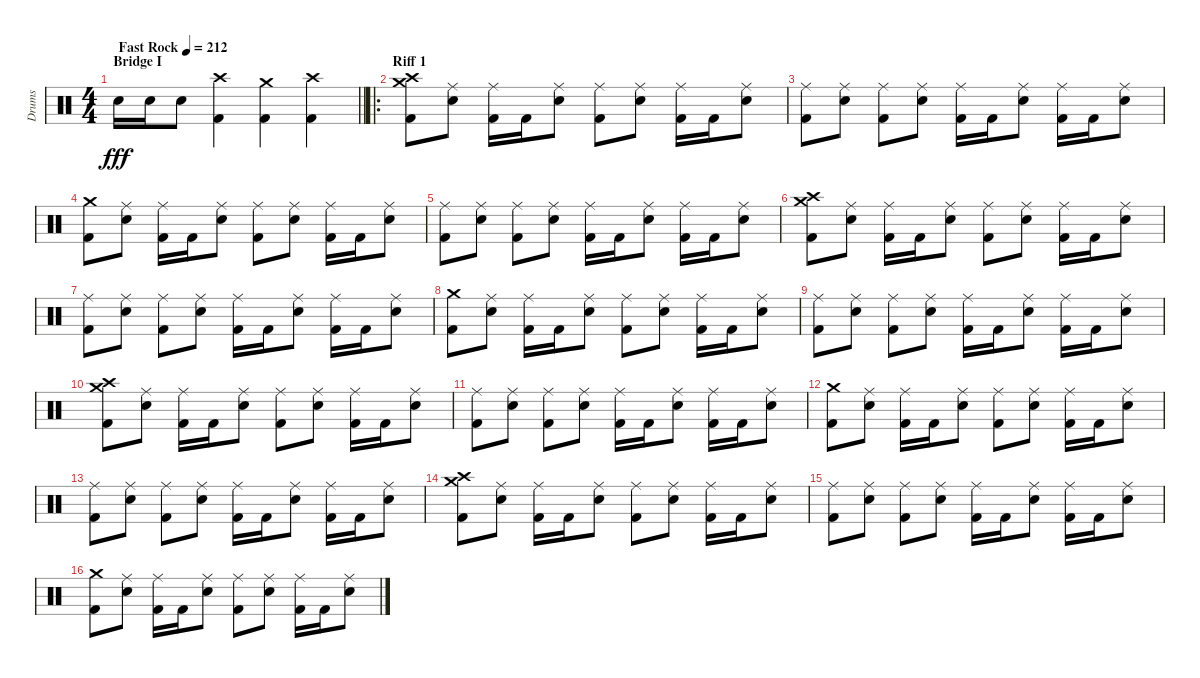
\track ("Drums" "Drums") {instrument percussion}
\staff {score}
\articulation defaults
\ts (4 4)
\section ("" "Bridge I")
\tempo (212 "Fast Rock")
\clef neutral
\barLineRight lightlight
\ks c "Electric Snare (hit)".16{dy fff} "Electric Snare (hit)".16 "Electric Snare (hit)".8
("Crash high (hit)" "Kick (hit) 2").4 ("Crash medium (hit)" "Kick (hit) 2").4 ("Crash high (hit)" "Kick (hit) 2").4 |
\ro
\section ("" "Riff 1")
("Crash high (hit)" "Crash medium (hit)" "Kick (hit) 2").8 ("Ride (middle)" "Electric Snare (hit)").8 ("Ride (middle)" "Kick (hit) 2").16 "Kick (hit) 2".16 ("Ride (middle)" "Electric Snare (hit)").8 ("Ride (middle)" "Kick (hit) 2").8 ("Ride (middle)" "Electric Snare (hit)").8 ("Ride (middle)" "Kick (hit) 2").16 "Kick (hit) 2".16 ("Ride (middle)" "Electric Snare (hit)").8 |
("Ride (middle)" "Kick (hit) 2").8 ("Ride (middle)" "Electric Snare (hit)").8 ("Ride (middle)" "Kick (hit) 2").8 ("Ride (middle)" "Electric Snare (hit)").8 ("Ride (middle)" "Kick (hit) 2").16 "Kick (hit) 2".16 ("Ride (middle)" "Electric Snare (hit)").8 ("Ride (middle)" "Kick (hit) 2").16 "Kick (hit) 2".16 ("Ride (middle)" "Electric Snare (hit)").8 |
("Crash medium (hit)" "Kick (hit) 2").8 ("Ride (middle)" "Electric Snare (hit)").8 ("Ride (middle)" "Kick (hit) 2").16 "Kick (hit) 2".16 ("Ride (middle)" "Electric Snare (hit)").8 ("Ride (middle)" "Kick (hit) 2").8 ("Ride (middle)" "Electric Snare (hit)").8 ("Ride (middle)" "Kick (hit) 2").16 "Kick (hit) 2".16 ("Ride (middle)" "Electric Snare (hit)").8 |
("Ride (middle)" "Kick (hit) 2").8 ("Ride (middle)" "Electric Snare (hit)").8 ("Ride (middle)" "Kick (hit) 2").8 ("Ride (middle)" "Electric Snare (hit)").8 ("Ride (middle)" "Kick (hit) 2").16 "Kick (hit) 2".16 ("Ride (middle)" "Electric Snare (hit)").8 ("Ride (middle)" "Kick (hit) 2").16 "Kick (hit) 2".16 ("Ride (middle)" "Electric Snare (hit)").8 |
("Crash high (hit)" "Crash medium (hit)" "Kick (hit) 2").8 ("Ride (middle)" "Electric Snare (hit)").8 ("Ride (middle)" "Kick (hit) 2").16 "Kick (hit) 2".16 ("Ride (middle)" "Electric Snare (hit)").8 ("Ride (middle)" "Kick (hit) 2").8 ("Ride (middle)" "Electric Snare (hit)").8 ("Ride (middle)" "Kick (hit) 2").16 "Kick (hit) 2".16 ("Ride (middle)" "Electric Snare (hit)").8 |
("Ride (middle)" "Kick (hit) 2").8 ("Ride (middle)" "Electric Snare (hit)").8 ("Ride (middle)" "Kick (hit) 2").8 ("Ride (middle)" "Electric Snare (hit)").8 ("Ride (middle)" "Kick (hit) 2").16 "Kick (hit) 2".16 ("Ride (middle)" "Electric Snare (hit)").8 ("Ride (middle)" "Kick (hit) 2").16 "Kick (hit) 2".16 ("Ride (middle)" "Electric Snare (hit)").8 |
("Crash medium (hit)" "Kick (hit) 2").8 ("Ride (middle)" "Electric Snare (hit)").8 ("Ride (middle)" "Kick (hit) 2").16 "Kick (hit) 2".16 ("Ride (middle)" "Electric Snare (hit)").8 ("Ride (middle)" "Kick (hit) 2").8 ("Ride (middle)" "Electric Snare (hit)").8 ("Ride (middle)" "Kick (hit) 2").16 "Kick (hit) 2".16 ("Ride (middle)" "Electric Snare (hit)").8 |
("Ride (middle)" "Kick (hit) 2").8 ("Ride (middle)" "Electric Snare (hit)").8 ("Ride (middle)" "Kick (hit) 2").8 ("Ride (middle)" "Electric Snare (hit)").8 ("Ride (middle)" "Kick (hit) 2").16 "Kick (hit) 2".16 ("Ride (middle)" "Electric Snare (hit)").8 ("Ride (middle)" "Kick (hit) 2").16 "Kick (hit) 2".16 ("Ride (middle)" "Electric Snare (hit)").8 |
("Crash high (hit)" "Crash medium (hit)" "Kick (hit) 2").8 ("Ride (middle)" "Electric Snare (hit)").8 ("Ride (middle)" "Kick (hit) 2").16 "Kick (hit) 2".16 ("Ride (middle)" "Electric Snare (hit)").8 ("Ride (middle)" "Kick (hit) 2").8 ("Ride (middle)" "Electric Snare (hit)").8 ("Ride (middle)" "Kick (hit) 2").16 "Kick (hit) 2".16 ("Ride (middle)" "Electric Snare (hit)").8 |
("Ride (middle)" "Kick (hit) 2").8 ("Ride (middle)" "Electric Snare (hit)").8 ("Ride (middle)" "Kick (hit) 2").8 ("Ride (middle)" "Electric Snare (hit)").8 ("Ride (middle)" "Kick (hit) 2").16 "Kick (hit) 2".16 ("Ride (middle)" "Electric Snare (hit)").8 ("Ride (middle)" "Kick (hit) 2").16 "Kick (hit) 2".16 ("Ride (middle)" "Electric Snare (hit)").8 |
("Crash medium (hit)" "Kick (hit) 2").8 ("Ride (middle)" "Electric Snare (hit)").8 ("Ride (middle)" "Kick (hit) 2").16 "Kick (hit) 2".16 ("Ride (middle)" "Electric Snare (hit)").8 ("Ride (middle)" "Kick (hit) 2").8 ("Ride (middle)" "Electric Snare (hit)").8 ("Ride (middle)" "Kick (hit) 2").16 "Kick (hit) 2".16 ("Ride (middle)" "Electric Snare (hit)").8 |
("Ride (middle)" "Kick (hit) 2").8 ("Ride (middle)" "Electric Snare (hit)").8 ("Ride (middle)" "Kick (hit) 2").8 ("Ride (middle)" "Electric Snare (hit)").8 ("Ride (middle)" "Kick (hit) 2").16 "Kick (hit) 2".16 ("Ride (middle)" "Electric Snare (hit)").8 ("Ride (middle)" "Kick (hit) 2").16 "Kick (hit) 2".16 ("Ride (middle)" "Electric Snare (hit)").8 |
("Crash high (hit)" "Crash medium (hit)" "Kick (hit) 2").8 ("Ride (middle)" "Electric Snare (hit)").8 ("Ride (middle)" "Kick (hit) 2").16 "Kick (hit) 2".16 ("Ride (middle)" "Electric Snare (hit)").8 ("Ride (middle)" "Kick (hit) 2").8 ("Ride (middle)" "Electric Snare (hit)").8 ("Ride (middle)" "Kick (hit) 2").16 "Kick (hit) 2".16 ("Ride (middle)" "Electric Snare (hit)").8 |
("Ride (middle)" "Kick (hit) 2").8 ("Ride (middle)" "Electric Snare (hit)").8 ("Ride (middle)" "Kick (hit) 2").8 ("Ride (middle)" "Electric Snare (hit)").8 ("Ride (middle)" "Kick (hit) 2").16 "Kick (hit) 2".16 ("Ride (middle)" "Electric Snare (hit)").8 ("Ride (middle)" "Kick (hit) 2").16 "Kick (hit) 2".16 ("Ride (middle)" "Electric Snare (hit)").8 |
("Crash medium (hit)" "Kick (hit) 2").8 ("Ride (middle)" "Electric Snare (hit)").8 ("Ride (middle)" "Kick (hit) 2").16 "Kick (hit) 2".16 ("Ride (middle)" "Electric Snare (hit)").8 ("Ride (middle)" "Kick (hit) 2").8 ("Ride (middle)" "Electric Snare (hit)").8 ("Ride (middle)" "Kick (hit) 2").16 "Kick (hit) 2".16 ("Ride (middle)" "Electric Snare (hit)").8
